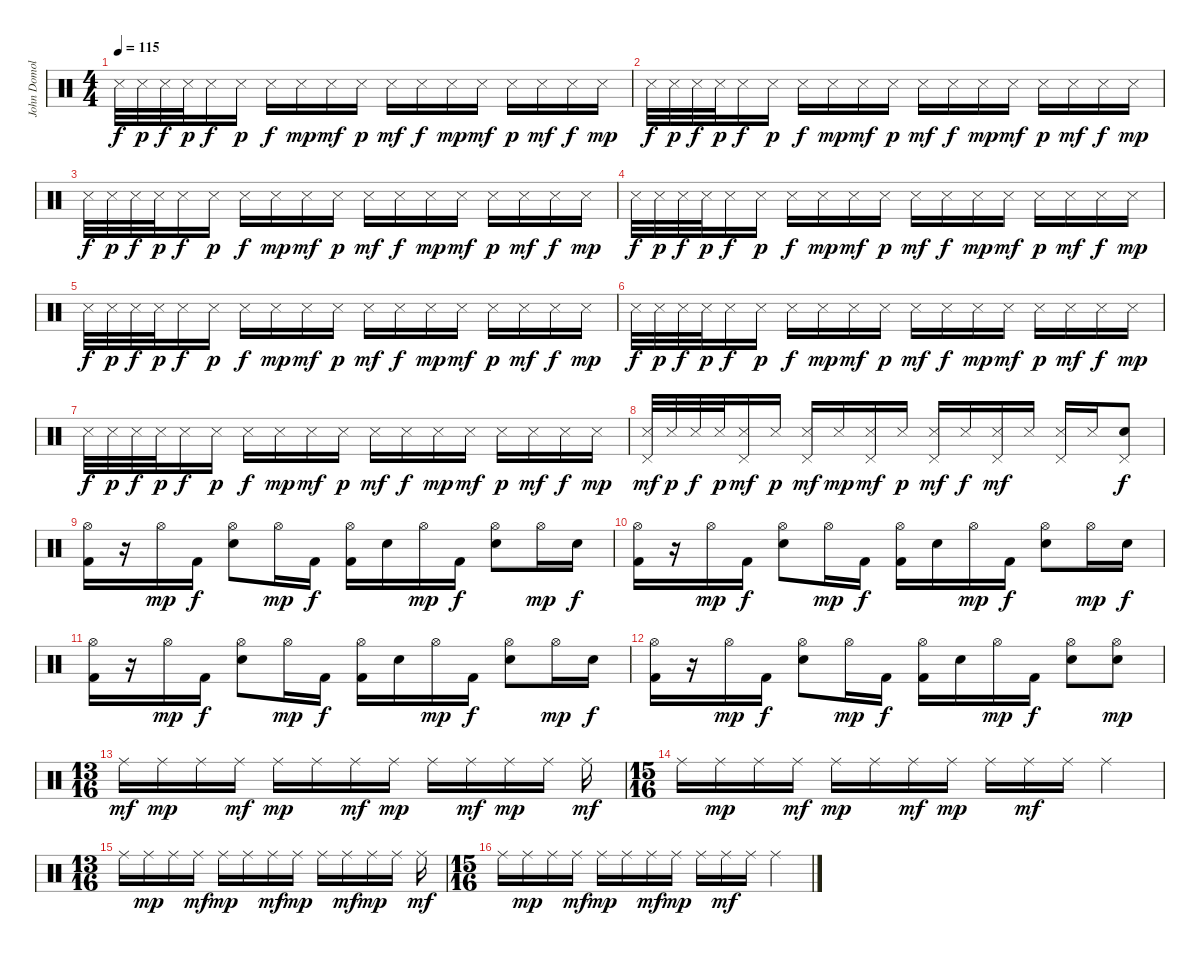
\track ("John Domolyan (Drums)" "John Domol") {instrument percussion}
\staff {score}
\articulation defaults
\ts (4 4)
\tempo 115
\clef neutral
\ks c "Snare (side stick) 3".32{dy f} "Snare (side stick) 3".32{dy p} "Snare (side stick) 3".32{dy f} "Snare (side stick) 3".32{dy p} "Snare (side stick) 3".16{dy f} "Snare (side stick) 3".16{dy p} "Snare (side stick) 3".16{dy f} "Snare (side stick) 3".16{dy mp} "Snare (side stick) 3".16{dy mf} "Snare (side stick) 3".16{dy p} "Snare (side stick) 3".16{dy mf} "Snare (side stick) 3".16{dy f} "Snare (side stick) 3".16{dy mp} "Snare (side stick) 3".16{dy mf} "Snare (side stick) 3".16{dy p} "Snare (side stick) 3".16{dy mf} "Snare (side stick) 3".16{dy f} "Snare (side stick) 3".16{dy mp}
|
"Snare (side stick) 3".32{dy f} "Snare (side stick) 3".32{dy p} "Snare (side stick) 3".32{dy f} "Snare (side stick) 3".32{dy p} "Snare (side stick) 3".16{dy f} "Snare (side stick) 3".16{dy p} "Snare (side stick) 3".16{dy f} "Snare (side stick) 3".16{dy mp} "Snare (side stick) 3".16{dy mf} "Snare (side stick) 3".16{dy p} "Snare (side stick) 3".16{dy mf} "Snare (side stick) 3".16{dy f} "Snare (side stick) 3".16{dy mp} "Snare (side stick) 3".16{dy mf} "Snare (side stick) 3".16{dy p} "Snare (side stick) 3".16{dy mf} "Snare (side stick) 3".16{dy f} "Snare (side stick) 3".16{dy mp} |
"Snare (side stick) 3".32{dy f} "Snare (side stick) 3".32{dy p} "Snare (side stick) 3".32{dy f} "Snare (side stick) 3".32{dy p} "Snare (side stick) 3".16{dy f} "Snare (side stick) 3".16{dy p} "Snare (side stick) 3".16{dy f} "Snare (side stick) 3".16{dy mp} "Snare (side stick) 3".16{dy mf} "Snare (side stick) 3".16{dy p} "Snare (side stick) 3".16{dy mf} "Snare (side stick) 3".16{dy f} "Snare (side stick) 3".16{dy mp} "Snare (side stick) 3".16{dy mf} "Snare (side stick) 3".16{dy p} "Snare (side stick) 3".16{dy mf} "Snare (side stick) 3".16{dy f} "Snare (side stick) 3".16{dy mp} |
"Snare (side stick) 3".32{dy f} "Snare (side stick) 3".32{dy p} "Snare (side stick) 3".32{dy f} "Snare (side stick) 3".32{dy p} "Snare (side stick) 3".16{dy f} "Snare (side stick) 3".16{dy p} "Snare (side stick) 3".16{dy f} "Snare (side stick) 3".16{dy mp} "Snare (side stick) 3".16{dy mf} "Snare (side stick) 3".16{dy p} "Snare (side stick) 3".16{dy mf} "Snare (side stick) 3".16{dy f} "Snare (side stick) 3".16{dy mp} "Snare (side stick) 3".16{dy mf} "Snare (side stick) 3".16{dy p} "Snare (side stick) 3".16{dy mf} "Snare (side stick) 3".16{dy f} "Snare (side stick) 3".16{dy mp} |
"Snare (side stick) 3".32{dy f} "Snare (side stick) 3".32{dy p} "Snare (side stick) 3".32{dy f} "Snare (side stick) 3".32{dy p} "Snare (side stick) 3".16{dy f} "Snare (side stick) 3".16{dy p} "Snare (side stick) 3".16{dy f} "Snare (side stick) 3".16{dy mp} "Snare (side stick) 3".16{dy mf} "Snare (side stick) 3".16{dy p} "Snare (side stick) 3".16{dy mf} "Snare (side stick) 3".16{dy f} "Snare (side stick) 3".16{dy mp} "Snare (side stick) 3".16{dy mf} "Snare (side stick) 3".16{dy p} "Snare (side stick) 3".16{dy mf} "Snare (side stick) 3".16{dy f} "Snare (side stick) 3".16{dy mp} |
"Snare (side stick) 3".32{dy f} "Snare (side stick) 3".32{dy p} "Snare (side stick) 3".32{dy f} "Snare (side stick) 3".32{dy p} "Snare (side stick) 3".16{dy f} "Snare (side stick) 3".16{dy p} "Snare (side stick) 3".16{dy f} "Snare (side stick) 3".16{dy mp} "Snare (side stick) 3".16{dy mf} "Snare (side stick) 3".16{dy p} "Snare (side stick) 3".16{dy mf} "Snare (side stick) 3".16{dy f} "Snare (side stick) 3".16{dy mp} "Snare (side stick) 3".16{dy mf} "Snare (side stick) 3".16{dy p} "Snare (side stick) 3".16{dy mf} "Snare (side stick) 3".16{dy f} "Snare (side stick) 3".16{dy mp} |
"Snare (side stick) 3".32{dy f} "Snare (side stick) 3".32{dy p} "Snare (side stick) 3".32{dy f} "Snare (side stick) 3".32{dy p} "Snare (side stick) 3".16{dy f} "Snare (side stick) 3".16{dy p} "Snare (side stick) 3".16{dy f} "Snare (side stick) 3".16{dy mp} "Snare (side stick) 3".16{dy mf} "Snare (side stick) 3".16{dy p} "Snare (side stick) 3".16{dy mf} "Snare (side stick) 3".16{dy f} "Snare (side stick) 3".16{dy mp} "Snare (side stick) 3".16{dy mf} "Snare (side stick) 3".16{dy p} "Snare (side stick) 3".16{dy mf} "Snare (side stick) 3".16{dy f} "Snare (side stick) 3".16{dy mp} |
("Snare (side stick) 3" "Pedal Hi-Hat (hit)").32{dy mf} "Snare (side stick) 3".32{dy p} "Snare (side stick) 3".32{dy f} "Snare (side stick) 3".32{dy p} ("Snare (side stick) 3" "Pedal Hi-Hat (hit)").16{dy mf} "Snare (side stick) 3".16{dy p} ("Snare (side stick) 3" "Pedal Hi-Hat (hit)").16{dy mf} "Snare (side stick) 3".16{dy mp} ("Snare (side stick) 3" "Pedal Hi-Hat (hit)").16{dy mf} "Snare (side stick) 3".16{dy p} ("Snare (side stick) 3" "Pedal Hi-Hat (hit)").16{dy mf} "Snare (side stick) 3".16{dy f} ("Snare (side stick) 3" "Pedal Hi-Hat (hit)").16{dy mf} "Snare (side stick) 3".16 ("Snare (side stick) 3" "Pedal Hi-Hat (hit)").16 "Snare (side stick) 3".16 ("Pedal Hi-Hat (hit)" "Electric Snare (hit)").8{dy f} |
("Hi-Hat (open)" "Kick (hit) 2").16 r.16 "Hi-Hat (open)".16{dy mp} "Kick (hit) 2".16{dy f} ("Hi-Hat (open)" "Electric Snare (hit)").8 "Hi-Hat (open)".16{dy mp} "Kick (hit) 2".16{dy f} ("Hi-Hat (open)" "Kick (hit) 2").16 "Electric Snare (hit)".16 "Hi-Hat (open)".16{dy mp} "Kick (hit) 2".16{dy f} ("Hi-Hat (open)" "Electric Snare (hit)").8 "Hi-Hat (open)".16{dy mp} "Electric Snare (hit)".16{dy f} |
("Hi-Hat (open)" "Kick (hit) 2").16 r.16 "Hi-Hat (open)".16{dy mp} "Kick (hit) 2".16{dy f} ("Hi-Hat (open)" "Electric Snare (hit)").8 "Hi-Hat (open)".16{dy mp} "Kick (hit) 2".16{dy f} ("Hi-Hat (open)" "Kick (hit) 2").16 "Electric Snare (hit)".16 "Hi-Hat (open)".16{dy mp} "Kick (hit) 2".16{dy f} ("Hi-Hat (open)" "Electric Snare (hit)").8 "Hi-Hat (open)".16{dy mp} "Electric Snare (hit)".16{dy f} |
("Hi-Hat (open)" "Kick (hit) 2").16 r.16 "Hi-Hat (open)".16{dy mp} "Kick (hit) 2".16{dy f} ("Hi-Hat (open)" "Electric Snare (hit)").8 "Hi-Hat (open)".16{dy mp} "Kick (hit) 2".16{dy f} ("Hi-Hat (open)" "Kick (hit) 2").16 "Electric Snare (hit)".16 "Hi-Hat (open)".16{dy mp} "Kick (hit) 2".16{dy f} ("Hi-Hat (open)" "Electric Snare (hit)").8 "Hi-Hat (open)".16{dy mp} "Electric Snare (hit)".16{dy f} |
("Hi-Hat (open)" "Kick (hit) 2").16 r.16 "Hi-Hat (open)".16{dy mp} "Kick (hit) 2".16{dy f} ("Hi-Hat (open)" "Electric Snare (hit)").8 "Hi-Hat (open)".16{dy mp} "Kick (hit) 2".16{dy f} ("Hi-Hat (open)" "Kick (hit) 2").16 "Electric Snare (hit)".16 "Hi-Hat (open)".16{dy mp} "Kick (hit) 2".16{dy f} ("Hi-Hat (open)" "Electric Snare (hit)").8 ("Hi-Hat (open)" "Electric Snare (hit)").8{dy mp} |
\ts (13 16)
"Ride (middle)".16{dy mf} "Ride (middle)".16{dy mp} "Ride (middle)".16 "Ride (middle)".16{dy mf} "Ride (middle)".16{dy mp} "Ride (middle)".16 "Ride (middle)".16{dy mf} "Ride (middle)".16{dy mp} "Ride (middle)".16 "Ride (middle)".16{dy mf} "Ride (middle)".16{dy mp} "Ride (middle)".16 "Ride (middle)".16{dy mf} |
\ts (15 16)
"Ride (middle)".16 "Ride (middle)".16{dy mp} "Ride (middle)".16 "Ride (middle)".16{dy mf} "Ride (middle)".16{dy mp} "Ride (middle)".16 "Ride (middle)".16{dy mf} "Ride (middle)".16{dy mp} "Ride (middle)".16 "Ride (middle)".16{dy mf} "Ride (middle)".16 "Ride (middle)".4 |
\ts (13 16)
"Ride (middle)".16 "Ride (middle)".16{dy mp} "Ride (middle)".16 "Ride (middle)".16{dy mf} "Ride (middle)".16{dy mp} "Ride (middle)".16 "Ride (middle)".16{dy mf} "Ride (middle)".16{dy mp} "Ride (middle)".16 "Ride (middle)".16{dy mf} "Ride (middle)".16{dy mp} "Ride (middle)".16 "Ride (middle)".16{dy mf} |
\ts (15 16)
"Ride (middle)".16 "Ride (middle)".16{dy mp} "Ride (middle)".16 "Ride (middle)".16{dy mf} "Ride (middle)".16{dy mp} "Ride (middle)".16 "Ride (middle)".16{dy mf} "Ride (middle)".16{dy mp} "Ride (middle)".16 "Ride (middle)".16{dy mf} "Ride (middle)".16 "Ride (middle)".4
